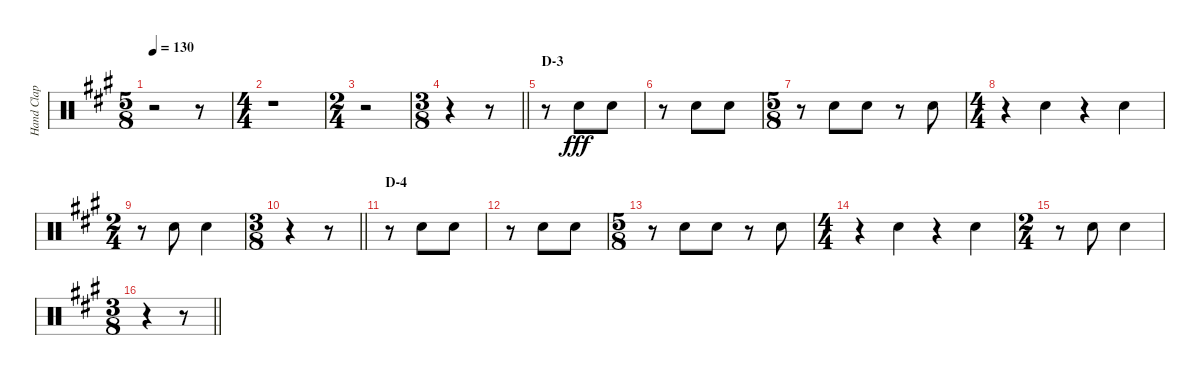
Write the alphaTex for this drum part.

\track ("Hand Clap" "Hand Clap") {instrument percussion}
\staff {score}
\articulation defaults
\ts (5 8)
\tempo 130
\clef neutral
\ks a
r.2{dy fff} r.8 |
\ts (4 4)
r.1 |
\ts (2 4)
r.2 |
\ts (3 8)
\barLineRight lightlight
r.4 r.8 |
\section ("" "D-3")
r.8 "Hand Clap (hit)".8 "Hand Clap (hit)".8 |
r.8 "Hand Clap (hit)".8 "Hand Clap (hit)".8 |
\ts (5 8)
r.8 "Hand Clap (hit)".8 "Hand Clap (hit)".8 r.8 "Hand Clap (hit)".8 |
\ts (4 4)
r.4 "Hand Clap (hit)".4 r.4 "Hand Clap (hit)".4 |
\ts (2 4)
r.8 "Hand Clap (hit)".8 "Hand Clap (hit)".4 |
\ts (3 8)
\barLineRight lightlight
r.4 r.8 |
\section ("" "D-4")
r.8 "Hand Clap (hit)".8 "Hand Clap (hit)".8 |
r.8 "Hand Clap (hit)".8 "Hand Clap (hit)".8 |
\ts (5 8)
r.8 "Hand Clap (hit)".8 "Hand Clap (hit)".8 r.8 "Hand Clap (hit)".8 |
\ts (4 4)
r.4 "Hand Clap (hit)".4 r.4 "Hand Clap (hit)".4 |
\ts (2 4)
r.8 "Hand Clap (hit)".8 "Hand Clap (hit)".4 |
\ts (3 8)
\barLineRight lightlight
r.4 r.8
